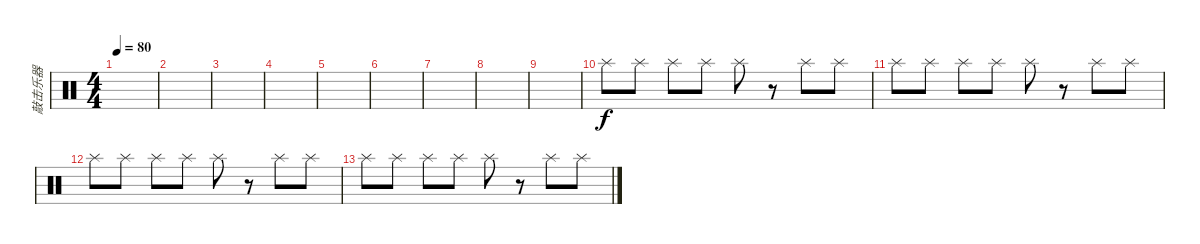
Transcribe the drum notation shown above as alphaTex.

\track ("敲击乐器" "敲击乐器") {instrument percussion}
\staff {score}
\articulation defaults
\ts (4 4)
\tempo 80
\clef neutral
\ks c
|
|
|
|
|
|
|
|
|
"Splash (hit)".8 "Splash (hit)".8 "Splash (hit)".8 "Splash (hit)".8 "Splash (hit)".8 r.8 "Splash (hit)".8 "Splash (hit)".8 |
"Splash (hit)".8 "Splash (hit)".8 "Splash (hit)".8 "Splash (hit)".8 "Splash (hit)".8 r.8 "Splash (hit)".8 "Splash (hit)".8 |
"Splash (hit)".8 "Splash (hit)".8 "Splash (hit)".8 "Splash (hit)".8 "Splash (hit)".8 r.8 "Splash (hit)".8 "Splash (hit)".8 |
"Splash (hit)".8 "Splash (hit)".8 "Splash (hit)".8 "Splash (hit)".8 "Splash (hit)".8 r.8 "Splash (hit)".8 "Splash (hit)".8
